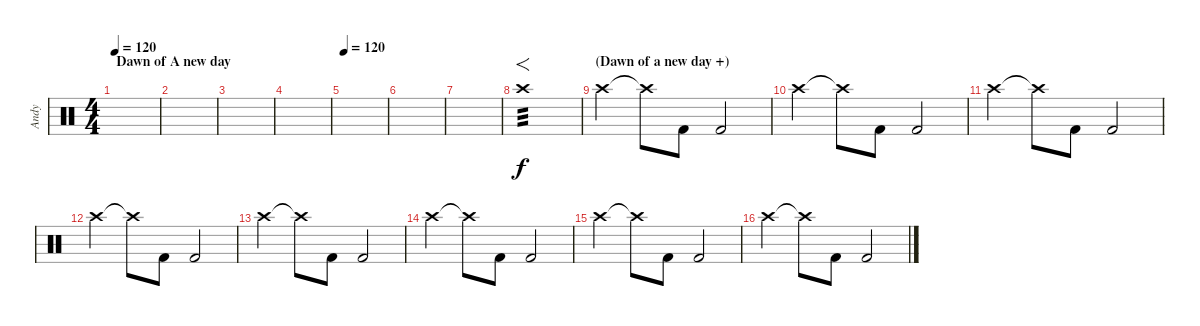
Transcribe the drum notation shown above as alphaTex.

\track ("Andy" "Andy") {instrument percussion}
\staff {score}
\articulation defaults
\ts (4 4)
\section ("" "Dawn of A new day")
\tempo 120
\clef neutral
\ks c
|
|
|
|
\tempo 120
|
|
|
"Crash high (hit)".1{f tp 3} |
\section ("" "(Dawn of a new day +)")
"Crash high (hit)".4 "Crash high (hit)"{t}.8 "Kick (hit) 2".8 "Kick (hit) 2".2 |
"Crash high (hit)".4 "Crash high (hit)"{t}.8 "Kick (hit) 2".8 "Kick (hit) 2".2 |
"Crash high (hit)".4 "Crash high (hit)"{t}.8 "Kick (hit) 2".8 "Kick (hit) 2".2 |
"Crash high (hit)".4 "Crash high (hit)"{t}.8 "Kick (hit) 2".8 "Kick (hit) 2".2 |
"Crash high (hit)".4 "Crash high (hit)"{t}.8 "Kick (hit) 2".8 "Kick (hit) 2".2 |
"Crash high (hit)".4 "Crash high (hit)"{t}.8 "Kick (hit) 2".8 "Kick (hit) 2".2 |
"Crash high (hit)".4 "Crash high (hit)"{t}.8 "Kick (hit) 2".8 "Kick (hit) 2".2 |
"Crash high (hit)".4 "Crash high (hit)"{t}.8 "Kick (hit) 2".8 "Kick (hit) 2".2
